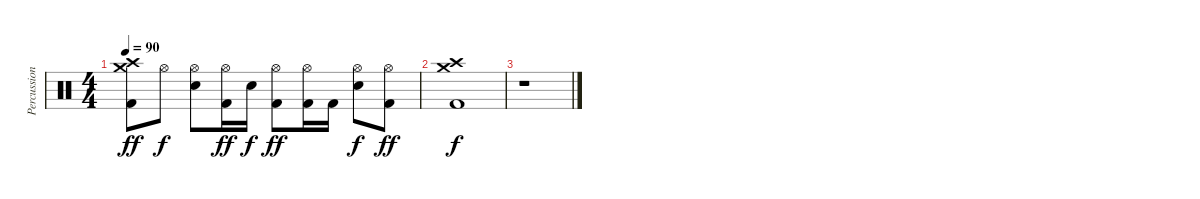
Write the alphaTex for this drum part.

\track ("Percussion" "Percussion") {instrument percussion}
\staff {score}
\articulation defaults
\ts (4 4)
\tempo 90
\clef neutral
\ks c
("Crash medium (hit)" "Crash high (hit)" "Kick (hit) 2").8{dy ff} "Hi-Hat (open)".8{dy f} ("Hi-Hat (open)" "Electric Snare (hit)").8 ("Hi-Hat (open)" "Kick (hit) 2").16{dy ff} "Electric Snare (hit)".16{dy f} ("Hi-Hat (open)" "Kick (hit) 2").8{dy ff} ("Hi-Hat (open)" "Kick (hit) 2").16 "Kick (hit) 2".16 ("Hi-Hat (open)" "Electric Snare (hit)").8{dy f} ("Hi-Hat (open)" "Kick (hit) 2").8{dy ff} |
("Crash medium (hit)" "Crash high (hit)" "Kick (hit) 2").1{dy f} |
r.1
